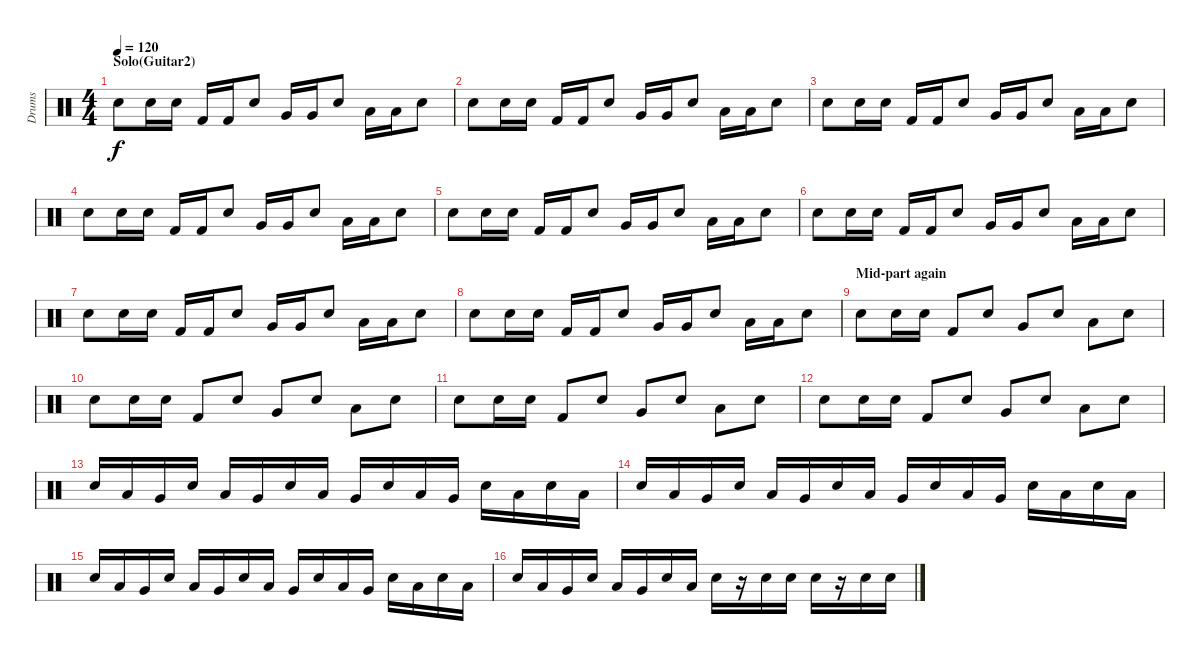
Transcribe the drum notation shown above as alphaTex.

\track ("Drums" "Drums") {instrument percussion}
\staff {score}
\articulation defaults
\ts (4 4)
\section ("" "Solo(Guitar2)")
\tempo 120
\clef neutral
\ks c "Electric Snare (hit)".8{dy f} "Electric Snare (hit)".16 "Electric Snare (hit)".16 "Kick (hit) 2".16 "Kick (hit) 2".16 "Electric Snare (hit)".8 "Very Low Tom (hit)".16 "Very Low Tom (hit)".16 "Electric Snare (hit)".8 "Low Tom (hit)".16 "Low Tom (hit)".16 "Electric Snare (hit)".8
|
"Electric Snare (hit)".8 "Electric Snare (hit)".16 "Electric Snare (hit)".16 "Kick (hit) 2".16 "Kick (hit) 2".16 "Electric Snare (hit)".8 "Very Low Tom (hit)".16 "Very Low Tom (hit)".16 "Electric Snare (hit)".8 "Low Tom (hit)".16 "Low Tom (hit)".16 "Electric Snare (hit)".8 |
"Electric Snare (hit)".8 "Electric Snare (hit)".16 "Electric Snare (hit)".16 "Kick (hit) 2".16 "Kick (hit) 2".16 "Electric Snare (hit)".8 "Very Low Tom (hit)".16 "Very Low Tom (hit)".16 "Electric Snare (hit)".8 "Low Tom (hit)".16 "Low Tom (hit)".16 "Electric Snare (hit)".8 |
"Electric Snare (hit)".8 "Electric Snare (hit)".16 "Electric Snare (hit)".16 "Kick (hit) 2".16 "Kick (hit) 2".16 "Electric Snare (hit)".8 "Very Low Tom (hit)".16 "Very Low Tom (hit)".16 "Electric Snare (hit)".8 "Low Tom (hit)".16 "Low Tom (hit)".16 "Electric Snare (hit)".8 |
"Electric Snare (hit)".8 "Electric Snare (hit)".16 "Electric Snare (hit)".16 "Kick (hit) 2".16 "Kick (hit) 2".16 "Electric Snare (hit)".8 "Very Low Tom (hit)".16 "Very Low Tom (hit)".16 "Electric Snare (hit)".8 "Low Tom (hit)".16 "Low Tom (hit)".16 "Electric Snare (hit)".8 |
"Electric Snare (hit)".8 "Electric Snare (hit)".16 "Electric Snare (hit)".16 "Kick (hit) 2".16 "Kick (hit) 2".16 "Electric Snare (hit)".8 "Very Low Tom (hit)".16 "Very Low Tom (hit)".16 "Electric Snare (hit)".8 "Low Tom (hit)".16 "Low Tom (hit)".16 "Electric Snare (hit)".8 |
"Electric Snare (hit)".8 "Electric Snare (hit)".16 "Electric Snare (hit)".16 "Kick (hit) 2".16 "Kick (hit) 2".16 "Electric Snare (hit)".8 "Very Low Tom (hit)".16 "Very Low Tom (hit)".16 "Electric Snare (hit)".8 "Low Tom (hit)".16 "Low Tom (hit)".16 "Electric Snare (hit)".8 |
"Electric Snare (hit)".8 "Electric Snare (hit)".16 "Electric Snare (hit)".16 "Kick (hit) 2".16 "Kick (hit) 2".16 "Electric Snare (hit)".8 "Very Low Tom (hit)".16 "Very Low Tom (hit)".16 "Electric Snare (hit)".8 "Low Tom (hit)".16 "Low Tom (hit)".16 "Electric Snare (hit)".8 |
\section ("" "Mid-part again")
"Electric Snare (hit)".8 "Electric Snare (hit)".16 "Electric Snare (hit)".16 "Kick (hit) 2".8 "Electric Snare (hit)".8 "Very Low Tom (hit)".8 "Electric Snare (hit)".8 "Low Tom (hit)".8 "Electric Snare (hit)".8 |
"Electric Snare (hit)".8 "Electric Snare (hit)".16 "Electric Snare (hit)".16 "Kick (hit) 2".8 "Electric Snare (hit)".8 "Very Low Tom (hit)".8 "Electric Snare (hit)".8 "Low Tom (hit)".8 "Electric Snare (hit)".8 |
"Electric Snare (hit)".8 "Electric Snare (hit)".16 "Electric Snare (hit)".16 "Kick (hit) 2".8 "Electric Snare (hit)".8 "Very Low Tom (hit)".8 "Electric Snare (hit)".8 "Low Tom (hit)".8 "Electric Snare (hit)".8 |
"Electric Snare (hit)".8 "Electric Snare (hit)".16 "Electric Snare (hit)".16 "Kick (hit) 2".8 "Electric Snare (hit)".8 "Very Low Tom (hit)".8 "Electric Snare (hit)".8 "Low Tom (hit)".8 "Electric Snare (hit)".8 |
"Electric Snare (hit)".16 "Low Tom (hit)".16 "Very Low Tom (hit)".16 "Electric Snare (hit)".16 "Low Tom (hit)".16 "Very Low Tom (hit)".16 "Electric Snare (hit)".16 "Low Tom (hit)".16 "Very Low Tom (hit)".16 "Electric Snare (hit)".16 "Low Tom (hit)".16 "Very Low Tom (hit)".16 "Electric Snare (hit)".16 "Low Tom (hit)".16 "Electric Snare (hit)".16 "Low Tom (hit)".16 |
"Electric Snare (hit)".16 "Low Tom (hit)".16 "Very Low Tom (hit)".16 "Electric Snare (hit)".16 "Low Tom (hit)".16 "Very Low Tom (hit)".16 "Electric Snare (hit)".16 "Low Tom (hit)".16 "Very Low Tom (hit)".16 "Electric Snare (hit)".16 "Low Tom (hit)".16 "Very Low Tom (hit)".16 "Electric Snare (hit)".16 "Low Tom (hit)".16 "Electric Snare (hit)".16 "Low Tom (hit)".16 |
"Electric Snare (hit)".16 "Low Tom (hit)".16 "Very Low Tom (hit)".16 "Electric Snare (hit)".16 "Low Tom (hit)".16 "Very Low Tom (hit)".16 "Electric Snare (hit)".16 "Low Tom (hit)".16 "Very Low Tom (hit)".16 "Electric Snare (hit)".16 "Low Tom (hit)".16 "Very Low Tom (hit)".16 "Electric Snare (hit)".16 "Low Tom (hit)".16 "Electric Snare (hit)".16 "Low Tom (hit)".16 |
"Electric Snare (hit)".16 "Low Tom (hit)".16 "Very Low Tom (hit)".16 "Electric Snare (hit)".16 "Low Tom (hit)".16 "Very Low Tom (hit)".16 "Electric Snare (hit)".16 "Low Tom (hit)".16 "Electric Snare (hit)".16 r.16 "Electric Snare (hit)".16 "Electric Snare (hit)".16 "Electric Snare (hit)".16 r.16 "Electric Snare (hit)".16 "Electric Snare (hit)".16
